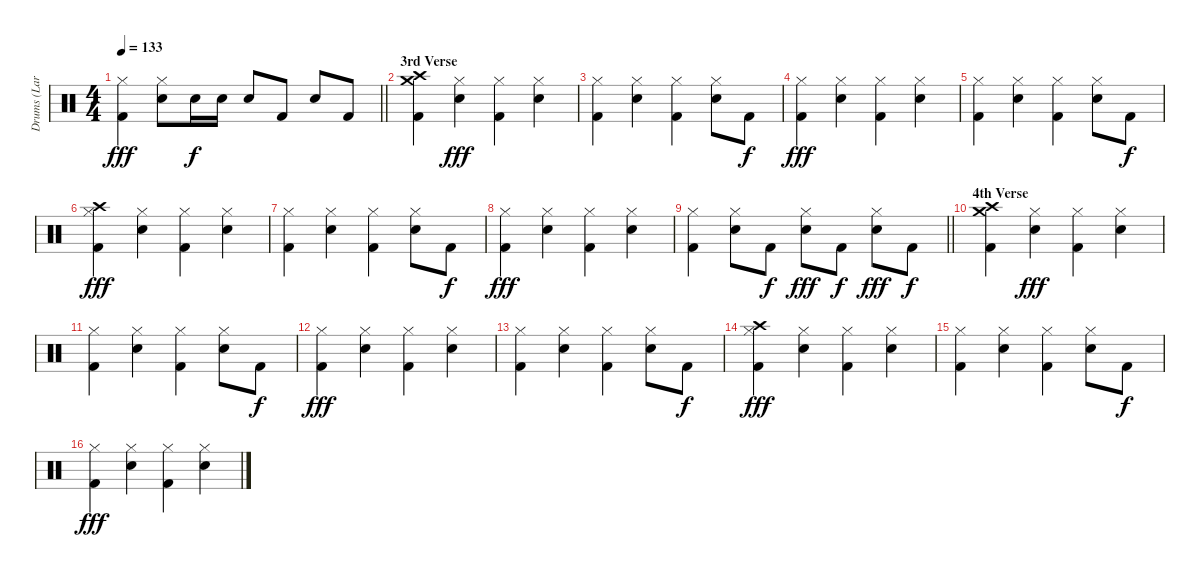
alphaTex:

\track ("Drums (Lars)" "Drums (Lar") {instrument percussion}
\staff {score}
\articulation defaults
\ts (4 4)
\tempo 133
\clef neutral
\barLineRight lightlight
\ks c
("Hi-Hat (closed)" "Kick (hit) 2").4{dy fff} ("Hi-Hat (closed)" "Snare (hit) 2").8 "Snare (hit) 2".16{dy f} "Snare (hit) 2".16 "Snare (hit) 2".8 "Kick (hit) 2".8 "Snare (hit) 2".8 "Kick (hit) 2".8 |
\section ("" "3rd Verse")
("Crash high (hit)" "Crash medium (hit)" "Kick (hit) 2").4 ("Hi-Hat (closed)" "Snare (hit) 2").4{dy fff} ("Hi-Hat (closed)" "Kick (hit) 2").4 ("Hi-Hat (closed)" "Snare (hit) 2").4 |
("Hi-Hat (closed)" "Kick (hit) 2").4 ("Hi-Hat (closed)" "Snare (hit) 2").4 ("Hi-Hat (closed)" "Kick (hit) 2").4 ("Hi-Hat (closed)" "Snare (hit) 2").8 "Kick (hit) 2".8{dy f} |
("Hi-Hat (closed)" "Kick (hit) 2").4{dy fff} ("Hi-Hat (closed)" "Snare (hit) 2").4 ("Hi-Hat (closed)" "Kick (hit) 2").4 ("Hi-Hat (closed)" "Snare (hit) 2").4 |
("Hi-Hat (closed)" "Kick (hit) 2").4 ("Hi-Hat (closed)" "Snare (hit) 2").4 ("Hi-Hat (closed)" "Kick (hit) 2").4 ("Hi-Hat (closed)" "Snare (hit) 2").8 "Kick (hit) 2".8{dy f} |
("Crash high (hit)" "Hi-Hat (closed)" "Kick (hit) 2").4{dy fff} ("Hi-Hat (closed)" "Snare (hit) 2").4 ("Hi-Hat (closed)" "Kick (hit) 2").4 ("Hi-Hat (closed)" "Snare (hit) 2").4 |
("Hi-Hat (closed)" "Kick (hit) 2").4 ("Hi-Hat (closed)" "Snare (hit) 2").4 ("Hi-Hat (closed)" "Kick (hit) 2").4 ("Hi-Hat (closed)" "Snare (hit) 2").8 "Kick (hit) 2".8{dy f} |
("Hi-Hat (closed)" "Kick (hit) 2").4{dy fff} ("Hi-Hat (closed)" "Snare (hit) 2").4 ("Hi-Hat (closed)" "Kick (hit) 2").4 ("Hi-Hat (closed)" "Snare (hit) 2").4 |
\barLineRight lightlight
("Hi-Hat (closed)" "Kick (hit) 2").4 ("Hi-Hat (closed)" "Snare (hit) 2").8 "Kick (hit) 2".8{dy f} ("Hi-Hat (closed)" "Snare (hit) 2").8{dy fff} "Kick (hit) 2".8{dy f} ("Hi-Hat (closed)" "Snare (hit) 2").8{dy fff} "Kick (hit) 2".8{dy f} |
\section ("" "4th Verse")
("Crash high (hit)" "Crash medium (hit)" "Kick (hit) 2").4 ("Hi-Hat (closed)" "Snare (hit) 2").4{dy fff} ("Hi-Hat (closed)" "Kick (hit) 2").4 ("Hi-Hat (closed)" "Snare (hit) 2").4 |
("Hi-Hat (closed)" "Kick (hit) 2").4 ("Hi-Hat (closed)" "Snare (hit) 2").4 ("Hi-Hat (closed)" "Kick (hit) 2").4 ("Hi-Hat (closed)" "Snare (hit) 2").8 "Kick (hit) 2".8{dy f} |
("Hi-Hat (closed)" "Kick (hit) 2").4{dy fff} ("Hi-Hat (closed)" "Snare (hit) 2").4 ("Hi-Hat (closed)" "Kick (hit) 2").4 ("Hi-Hat (closed)" "Snare (hit) 2").4 |
("Hi-Hat (closed)" "Kick (hit) 2").4 ("Hi-Hat (closed)" "Snare (hit) 2").4 ("Hi-Hat (closed)" "Kick (hit) 2").4 ("Hi-Hat (closed)" "Snare (hit) 2").8 "Kick (hit) 2".8{dy f} |
("Crash high (hit)" "Hi-Hat (closed)" "Kick (hit) 2").4{dy fff} ("Hi-Hat (closed)" "Snare (hit) 2").4 ("Hi-Hat (closed)" "Kick (hit) 2").4 ("Hi-Hat (closed)" "Snare (hit) 2").4 |
("Hi-Hat (closed)" "Kick (hit) 2").4 ("Hi-Hat (closed)" "Snare (hit) 2").4 ("Hi-Hat (closed)" "Kick (hit) 2").4 ("Hi-Hat (closed)" "Snare (hit) 2").8 "Kick (hit) 2".8{dy f} |
("Hi-Hat (closed)" "Kick (hit) 2").4{dy fff} ("Hi-Hat (closed)" "Snare (hit) 2").4 ("Hi-Hat (closed)" "Kick (hit) 2").4 ("Hi-Hat (closed)" "Snare (hit) 2").4
